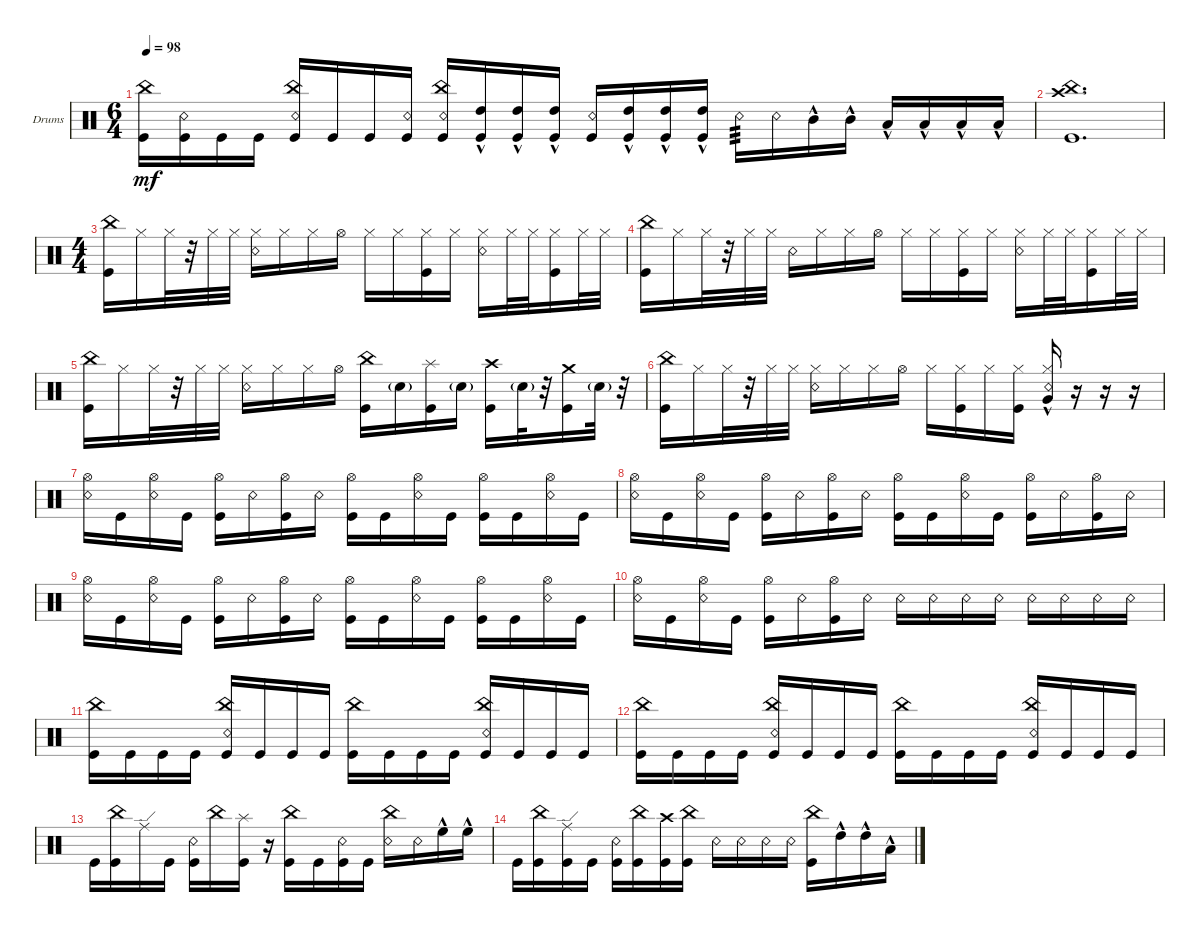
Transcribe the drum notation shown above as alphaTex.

\defaultSystemsLayout 4
\bracketExtendMode groupsimilarinstruments
\multiBarRest
\firstSystemTrackNameOrientation horizontal
\otherSystemsTrackNameOrientation horizontal
\track ("Drumkit" "Drums") {instrument percussion}
\staff {score}
\articulation defaults
\ts (6 4)
\tempo 98
\clef neutral
\ks c
("Kick (hit)" "China (hit)").16{dy mf} ("Kick (hit)" "Snare (rim shot)").16 "Kick (hit)".16 "Kick (hit)".16 ("Kick (hit)" "China (hit)" "Snare (rim shot)").16 "Kick (hit)".16 "Kick (hit)".16 ("Kick (hit)" "Snare (rim shot)").16 ("Kick (hit)" "China (hit)" "Snare (rim shot)").16 ("Kick (hit)" "High Tom (hit)"{hac}).16 ("Kick (hit)" "High Tom (hit)"{hac}).16 ("Kick (hit)" "High Tom (hit)"{hac}).16 ("Kick (hit)" "Snare (rim shot)").16 ("Kick (hit)" "High Tom (hit)"{hac}).16 ("Kick (hit)" "High Tom (hit)"{hac}).16 ("Kick (hit)" "High Tom (hit)"{hac}).16 "Snare (rim shot)".16{tp 3} "Snare (rim shot)".16 "Mid Tom (hit)"{hac}.16 "Mid Tom (hit)"{hac}.16 "Low Tom (hit)"{hac}.16 "Low Tom (hit)"{hac}.16 "Low Tom (hit)"{hac}.16 "Low Tom (hit)"{hac}.16 |
("Kick (hit)" "China (hit)" "Crash high (hit)").1{d} |
\ts (4 4)
("Kick (hit)" "China (hit)").16 "Hi-Hat (closed)".16 "Hi-Hat (closed)".32 r.32 "Hi-Hat (closed)".32 "Hi-Hat (closed)".32 ("Hi-Hat (closed)" "Snare (rim shot)").16 "Hi-Hat (closed)".16 "Hi-Hat (closed)".16 "Hi-Hat (open)".16 "Hi-Hat (closed)".16 "Hi-Hat (closed)".16 ("Hi-Hat (closed)" "Kick (hit)").16 "Hi-Hat (closed)".16 ("Hi-Hat (closed)" "Snare (rim shot)").16 "Hi-Hat (closed)".32 "Hi-Hat (closed)".32 ("Hi-Hat (closed)" "Kick (hit)").16 "Hi-Hat (closed)".32 "Hi-Hat (closed)".32 |
("Kick (hit)" "China (hit)").16 "Hi-Hat (closed)".16 "Hi-Hat (closed)".32 r.32 "Hi-Hat (closed)".32 "Hi-Hat (closed)".32 "Snare (rim shot)".16 "Hi-Hat (closed)".16 "Hi-Hat (closed)".16 "Hi-Hat (open)".16 "Hi-Hat (closed)".16 "Hi-Hat (closed)".16 ("Hi-Hat (closed)" "Kick (hit)").16 "Hi-Hat (closed)".16 ("Hi-Hat (closed)" "Snare (rim shot)").16 "Hi-Hat (closed)".32 "Hi-Hat (closed)".32 ("Hi-Hat (closed)" "Kick (hit)").16 "Hi-Hat (closed)".32 "Hi-Hat (closed)".32 |
("Kick (hit)" "China (hit)").16 "Hi-Hat (closed)".16 "Hi-Hat (closed)".32 r.32 "Hi-Hat (closed)".32 "Hi-Hat (closed)".32 ("Hi-Hat (closed)" "Snare (rim shot)").16 "Hi-Hat (closed)".16 "Hi-Hat (closed)".16 "Hi-Hat (open)".16 ("China (hit)" "Kick (hit)").16 "Snare (hit) 2"{g}.16 ("Kick (hit)" "Splash (hit)").16 "Snare (hit) 2"{g}.16 ("Kick (hit)" "Crash high (hit)").16 "Snare (hit) 2"{g}.32 r.32 ("Kick (hit)" "Crash medium (hit)").16 "Snare (hit) 2"{g}.32 r.32 |
("Kick (hit)" "China (hit)").16 "Hi-Hat (closed)".16 "Hi-Hat (closed)".32 r.32 "Hi-Hat (closed)".32 "Hi-Hat (closed)".32 ("Hi-Hat (closed)" "Snare (rim shot)").16 "Hi-Hat (closed)".16 "Hi-Hat (closed)".16 "Hi-Hat (open)".16 "Hi-Hat (closed)".16 ("Hi-Hat (closed)" "Kick (hit)").16 "Hi-Hat (closed)".16 ("Hi-Hat (closed)" "Kick (hit)").16 ("Hi-Hat (closed)" "Snare (rim shot)" "Very Low Tom (hit)"{hac}).16 r.16 r.16 r.16 |
("Snare (rim shot)" "Hi-Hat (open)").16 "Kick (hit)".16 ("Snare (rim shot)" "Hi-Hat (open)").16 "Kick (hit)".16 ("Kick (hit)" "Hi-Hat (open)").16 "Snare (rim shot)".16 ("Kick (hit)" "Hi-Hat (open)").16 "Snare (rim shot)".16 ("Kick (hit)" "Hi-Hat (open)").16 "Kick (hit)".16 ("Snare (rim shot)" "Hi-Hat (open)").16 "Kick (hit)".16 ("Kick (hit)" "Hi-Hat (open)").16 "Kick (hit)".16 ("Snare (rim shot)" "Hi-Hat (open)").16 "Kick (hit)".16 |
("Snare (rim shot)" "Hi-Hat (open)").16 "Kick (hit)".16 ("Snare (rim shot)" "Hi-Hat (open)").16 "Kick (hit)".16 ("Kick (hit)" "Hi-Hat (open)").16 "Snare (rim shot)".16 ("Kick (hit)" "Hi-Hat (open)").16 "Snare (rim shot)".16 ("Kick (hit)" "Hi-Hat (open)").16 "Kick (hit)".16 ("Snare (rim shot)" "Hi-Hat (open)").16 "Kick (hit)".16 ("Kick (hit)" "Hi-Hat (open)").16 "Snare (rim shot)".16 ("Kick (hit)" "Hi-Hat (open)").16 "Snare (rim shot)".16 |
("Snare (rim shot)" "Hi-Hat (open)").16 "Kick (hit)".16 ("Snare (rim shot)" "Hi-Hat (open)").16 "Kick (hit)".16 ("Kick (hit)" "Hi-Hat (open)").16 "Snare (rim shot)".16 ("Kick (hit)" "Hi-Hat (open)").16 "Snare (rim shot)".16 ("Kick (hit)" "Hi-Hat (open)").16 "Kick (hit)".16 ("Snare (rim shot)" "Hi-Hat (open)").16 "Kick (hit)".16 ("Kick (hit)" "Hi-Hat (open)").16 "Kick (hit)".16 ("Snare (rim shot)" "Hi-Hat (open)").16 "Kick (hit)".16 |
("Snare (rim shot)" "Hi-Hat (open)").16 "Kick (hit)".16 ("Snare (rim shot)" "Hi-Hat (open)").16 "Kick (hit)".16 ("Kick (hit)" "Hi-Hat (open)").16 "Snare (rim shot)".16 ("Kick (hit)" "Hi-Hat (open)").16 "Snare (rim shot)".16 "Snare (rim shot)".16 "Snare (rim shot)".16 "Snare (rim shot)".16 "Snare (rim shot)".16 "Snare (rim shot)".16 "Snare (rim shot)".16 "Snare (rim shot)".16 "Snare (rim shot)".16 |
("Kick (hit)" "China (hit)").16 "Kick (hit)".16 "Kick (hit)".16 "Kick (hit)".16 ("Kick (hit)" "China (hit)" "Snare (rim shot)").16 "Kick (hit)".16 "Kick (hit)".16 "Kick (hit)".16 ("Kick (hit)" "China (hit)").16 "Kick (hit)".16 "Kick (hit)".16 "Kick (hit)".16 ("Kick (hit)" "Snare (rim shot)" "China (hit)").16 "Kick (hit)".16 "Kick (hit)".16 "Kick (hit)".16 |
("Kick (hit)" "China (hit)").16 "Kick (hit)".16 "Kick (hit)".16 "Kick (hit)".16 ("Kick (hit)" "China (hit)" "Snare (rim shot)").16 "Kick (hit)".16 "Kick (hit)".16 "Kick (hit)".16 ("Kick (hit)" "China (hit)").16 "Kick (hit)".16 "Kick (hit)".16 "Kick (hit)".16 ("Kick (hit)" "Snare (rim shot)" "China (hit)").16 "Kick (hit)".16 "Kick (hit)".16 "Kick (hit)".16 |
"Kick (hit)".16 ("Kick (hit)" "China (hit)").16 "Ride (edge)".16 "Kick (hit)".16 ("Kick (hit)" "Snare (rim shot)").16 "China (hit)".16 ("Kick (hit)" "Splash (hit)").16 r.16 ("Kick (hit)" "China (hit)").16 "Kick (hit)".16 ("Kick (hit)" "Snare (rim shot)").16 "Kick (hit)".16 ("Snare (rim shot)" "China (hit)").16 "Snare (rim shot)".16 "High Floor Tom (hit)"{hac}.16 "High Floor Tom (hit)"{hac}.16 |
"Kick (hit)".16 ("Kick (hit)" "China (hit)").16 ("Kick (hit)" "Ride (edge)").16 "Kick (hit)".16 ("Kick (hit)" "Snare (rim shot)").16 ("Kick (hit)" "China (hit)").16 ("Kick (hit)" "Crash high (hit)").16 ("Kick (hit)" "China (hit)").16 "Snare (rim shot)".16 "Snare (rim shot)".16 "Snare (rim shot)".16 "Snare (rim shot)".16 ("Kick (hit)" "China (hit)").16 "High Tom (hit)"{hac}.16 "High Tom (hit)"{hac}.16 "Low Tom (hit)"{hac}.16
